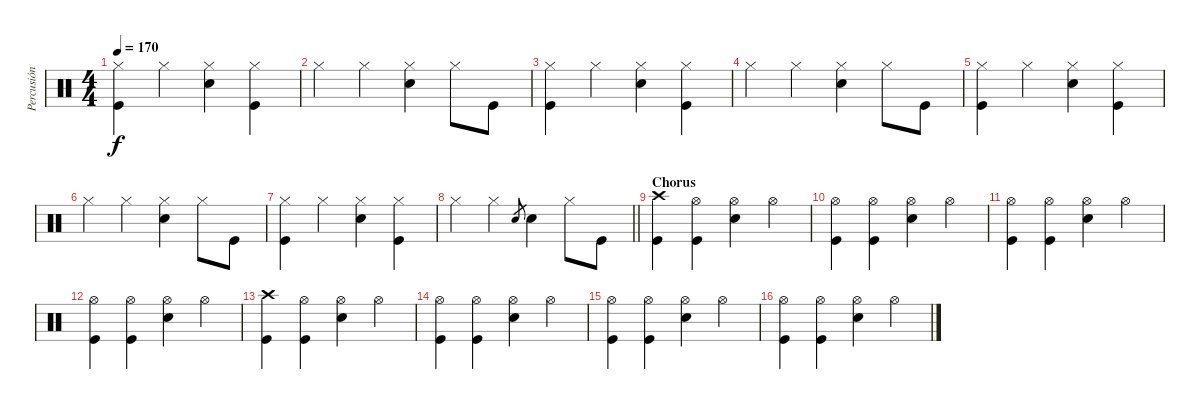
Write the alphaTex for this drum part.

\track ("Percusión" "Percusión") {instrument percussion}
\staff {score}
\articulation defaults
\ts (4 4)
\tempo 170
\clef neutral
\ks c
("Hi-Hat (closed)" "Kick (hit)").4{dy f} "Hi-Hat (closed)".4 ("Hi-Hat (closed)" "Electric Snare (hit)").4 ("Hi-Hat (closed)" "Kick (hit)").4 |
"Hi-Hat (closed)".4 "Hi-Hat (closed)".4 ("Hi-Hat (closed)" "Electric Snare (hit)").4 "Hi-Hat (closed)".8 "Kick (hit)".8 |
("Hi-Hat (closed)" "Kick (hit)").4 "Hi-Hat (closed)".4 ("Hi-Hat (closed)" "Electric Snare (hit)").4 ("Hi-Hat (closed)" "Kick (hit)").4 |
"Hi-Hat (closed)".4 "Hi-Hat (closed)".4 ("Hi-Hat (closed)" "Electric Snare (hit)").4 "Hi-Hat (closed)".8 "Kick (hit)".8 |
("Hi-Hat (closed)" "Kick (hit)").4 "Hi-Hat (closed)".4 ("Hi-Hat (closed)" "Electric Snare (hit)").4 ("Hi-Hat (closed)" "Kick (hit)").4 |
"Hi-Hat (closed)".4 "Hi-Hat (closed)".4 ("Hi-Hat (closed)" "Electric Snare (hit)").4 "Hi-Hat (closed)".8 "Kick (hit)".8 |
("Hi-Hat (closed)" "Kick (hit)").4 "Hi-Hat (closed)".4 ("Hi-Hat (closed)" "Electric Snare (hit)").4 ("Hi-Hat (closed)" "Kick (hit)").4 |
\barLineRight lightlight "Hi-Hat (closed)".4 "Hi-Hat (closed)".4 "Electric Snare (hit)".8{gr} "Electric Snare (hit)".4 "Hi-Hat (closed)".8 "Kick (hit)".8
|
\section ("" "Chorus")
("Crash high (hit)" "Kick (hit)").4 ("Hi-Hat (open)" "Kick (hit)").4 ("Hi-Hat (open)" "Electric Snare (hit)").4 "Hi-Hat (open)".4 |
("Hi-Hat (open)" "Kick (hit)").4 ("Hi-Hat (open)" "Kick (hit)").4 ("Hi-Hat (open)" "Electric Snare (hit)").4 "Hi-Hat (open)".4 |
("Hi-Hat (open)" "Kick (hit)").4 ("Hi-Hat (open)" "Kick (hit)").4 ("Hi-Hat (open)" "Electric Snare (hit)").4 "Hi-Hat (open)".4 |
("Hi-Hat (open)" "Kick (hit)").4 ("Hi-Hat (open)" "Kick (hit)").4 ("Hi-Hat (open)" "Electric Snare (hit)").4 "Hi-Hat (open)".4 |
("Crash high (hit)" "Kick (hit)").4 ("Hi-Hat (open)" "Kick (hit)").4 ("Hi-Hat (open)" "Electric Snare (hit)").4 "Hi-Hat (open)".4 |
("Hi-Hat (open)" "Kick (hit)").4 ("Hi-Hat (open)" "Kick (hit)").4 ("Hi-Hat (open)" "Electric Snare (hit)").4 "Hi-Hat (open)".4 |
("Hi-Hat (open)" "Kick (hit)").4 ("Hi-Hat (open)" "Kick (hit)").4 ("Hi-Hat (open)" "Electric Snare (hit)").4 "Hi-Hat (open)".4 |
("Hi-Hat (open)" "Kick (hit)").4 ("Hi-Hat (open)" "Kick (hit)").4 ("Hi-Hat (open)" "Electric Snare (hit)").4 "Hi-Hat (open)".4
